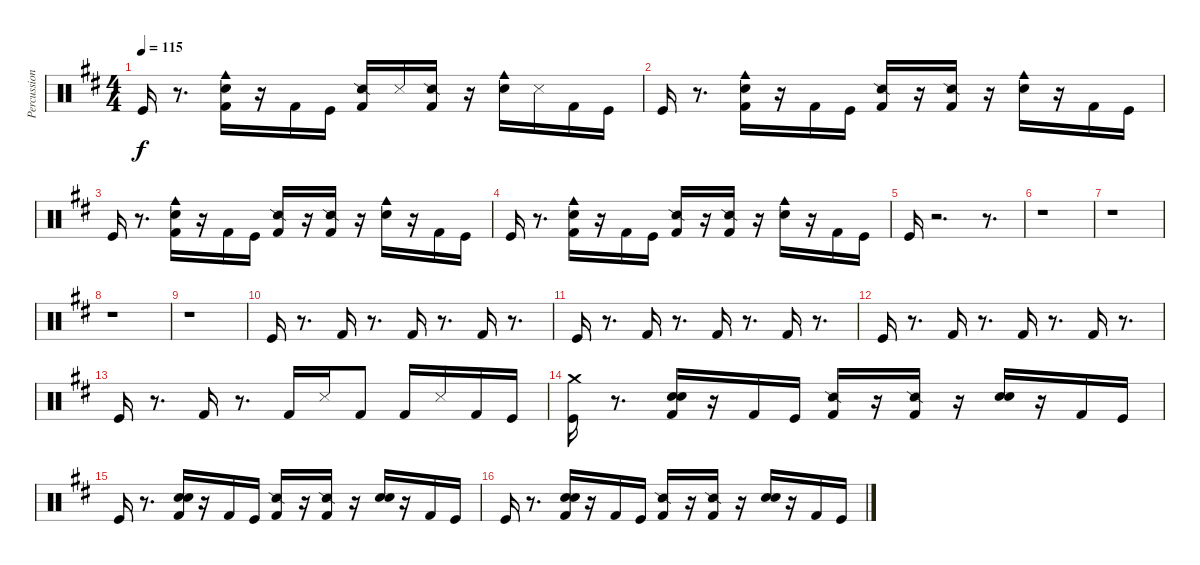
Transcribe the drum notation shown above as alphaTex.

\track ("Percussions" "Percussion") {instrument percussion}
\staff {score}
\articulation defaults
\ts (4 4)
\tempo 115
\clef neutral
\ks bminor "Kick (hit)".16{dy f}
r.8{d} ("Kick (hit) 2" "Hand Clap (hit)" "Cowbell medium (hit)").16 r.16 "Kick (hit) 2".16 "Kick (hit)".16 ("Snare (side stick) 2" "Kick (hit) 2").16 "Metronome (hit)".16 ("Snare (side stick) 2" "Kick (hit) 2").16 r.16 ("Hand Clap (hit)" "Cowbell medium (hit)").16 "Metronome (hit)".16 "Kick (hit) 2".16 "Kick (hit)".16 |
"Kick (hit)".16 r.8{d} ("Kick (hit) 2" "Hand Clap (hit)" "Cowbell medium (hit)").16 r.16 "Kick (hit) 2".16 "Kick (hit)".16 ("Snare (side stick) 2" "Kick (hit) 2").16 r.16 ("Snare (side stick) 2" "Kick (hit) 2").16 r.16 ("Hand Clap (hit)" "Cowbell medium (hit)").16 r.16 "Kick (hit) 2".16 "Kick (hit)".16 |
"Kick (hit)".16 r.8{d} ("Kick (hit) 2" "Hand Clap (hit)" "Cowbell medium (hit)").16 r.16 "Kick (hit) 2".16 "Kick (hit)".16 ("Snare (side stick) 2" "Kick (hit) 2").16 r.16 ("Snare (side stick) 2" "Kick (hit) 2").16 r.16 ("Hand Clap (hit)" "Cowbell medium (hit)").16 r.16 "Kick (hit) 2".16 "Kick (hit)".16 |
"Kick (hit)".16 r.8{d} ("Kick (hit) 2" "Hand Clap (hit)" "Cowbell medium (hit)").16 r.16 "Kick (hit) 2".16 "Kick (hit)".16 ("Snare (side stick) 2" "Kick (hit) 2").16 r.16 ("Snare (side stick) 2" "Kick (hit) 2").16 r.16 ("Hand Clap (hit)" "Cowbell medium (hit)").16 r.16 "Kick (hit) 2".16 "Kick (hit)".16 |
"Kick (hit)".16 r.2{d} r.8{d} |
r.1 |
r.1 |
r.1 |
r.1 |
"Kick (hit)".16 r.8{d} "Kick (hit) 2".16 r.8{d} "Kick (hit) 2".16 r.8{d} "Kick (hit) 2".16 r.8{d} |
"Kick (hit)".16 r.8{d} "Kick (hit) 2".16 r.8{d} "Kick (hit) 2".16 r.8{d} "Kick (hit) 2".16 r.8{d} |
"Kick (hit)".16 r.8{d} "Kick (hit) 2".16 r.8{d} "Kick (hit) 2".16 r.8{d} "Kick (hit) 2".16 r.8{d} |
"Kick (hit)".16 r.8{d} "Kick (hit) 2".16 r.8{d} "Kick (hit) 2".16 "Metronome (hit)".16 "Kick (hit) 2".8 "Kick (hit) 2".16 "Metronome (hit)".16 "Kick (hit) 2".16 "Kick (hit)".16 |
("Kick (hit)" "Crash medium (hit)").16 r.8{d} ("Kick (hit) 2" "Hand Clap (hit)" "Snare (hit) 2").16 r.16 "Kick (hit) 2".16 "Kick (hit)".16 ("Snare (side stick) 2" "Kick (hit) 2").16 r.16 ("Snare (side stick) 2" "Kick (hit) 2").16 r.16 ("Hand Clap (hit)" "Snare (hit) 2").16 r.16 "Kick (hit) 2".16 "Kick (hit)".16 |
"Kick (hit)".16 r.8{d} ("Kick (hit) 2" "Hand Clap (hit)" "Snare (hit) 2").16 r.16 "Kick (hit) 2".16 "Kick (hit)".16 ("Snare (side stick) 2" "Kick (hit) 2").16 r.16 ("Snare (side stick) 2" "Kick (hit) 2").16 r.16 ("Hand Clap (hit)" "Snare (hit) 2").16 r.16 "Kick (hit) 2".16 "Kick (hit)".16 |
"Kick (hit)".16 r.8{d} ("Kick (hit) 2" "Hand Clap (hit)" "Snare (hit) 2").16 r.16 "Kick (hit) 2".16 "Kick (hit)".16 ("Snare (side stick) 2" "Kick (hit) 2").16 r.16 ("Snare (side stick) 2" "Kick (hit) 2").16 r.16 ("Hand Clap (hit)" "Snare (hit) 2").16 r.16 "Kick (hit) 2".16 "Kick (hit)".16
